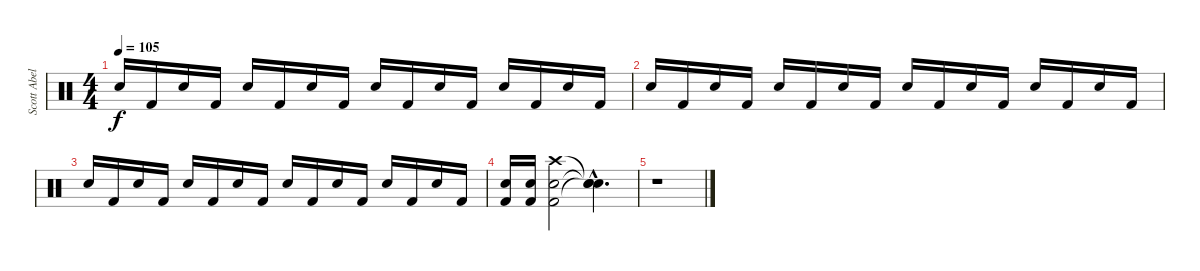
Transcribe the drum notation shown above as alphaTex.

\track ("Scott Abels - Drums" "Scott Abel") {instrument percussion}
\staff {score}
\articulation defaults
\ts (4 4)
\tempo 105
\clef neutral
\ks c "Electric Snare (hit)".16{dy f} "Kick (hit) 2".16 "Electric Snare (hit)".16 "Kick (hit) 2".16 "Electric Snare (hit)".16 "Kick (hit) 2".16 "Electric Snare (hit)".16 "Kick (hit) 2".16 "Electric Snare (hit)".16 "Kick (hit) 2".16 "Electric Snare (hit)".16 "Kick (hit) 2".16 "Electric Snare (hit)".16 "Kick (hit) 2".16 "Electric Snare (hit)".16 "Kick (hit) 2".16
|
"Electric Snare (hit)".16 "Kick (hit) 2".16 "Electric Snare (hit)".16 "Kick (hit) 2".16 "Electric Snare (hit)".16 "Kick (hit) 2".16 "Electric Snare (hit)".16 "Kick (hit) 2".16 "Electric Snare (hit)".16 "Kick (hit) 2".16 "Electric Snare (hit)".16 "Kick (hit) 2".16 "Electric Snare (hit)".16 "Kick (hit) 2".16 "Electric Snare (hit)".16 "Kick (hit) 2".16 |
"Electric Snare (hit)".16 "Kick (hit) 2".16 "Electric Snare (hit)".16 "Kick (hit) 2".16 "Electric Snare (hit)".16 "Kick (hit) 2".16 "Electric Snare (hit)".16 "Kick (hit) 2".16 "Electric Snare (hit)".16 "Kick (hit) 2".16 "Electric Snare (hit)".16 "Kick (hit) 2".16 "Electric Snare (hit)".16 "Kick (hit) 2".16 "Electric Snare (hit)".16 "Kick (hit) 2".16 |
("Electric Snare (hit)" "Kick (hit) 2").16 ("Electric Snare (hit)" "Kick (hit) 2").16 ("Crash high (hit)" "Electric Snare (hit)" "Kick (hit) 2").2 ("Snare (hit)"{hac t} "Snare (hit)"{hac t} "Snare (hit)"{hac t}).4{d} |
r.1
